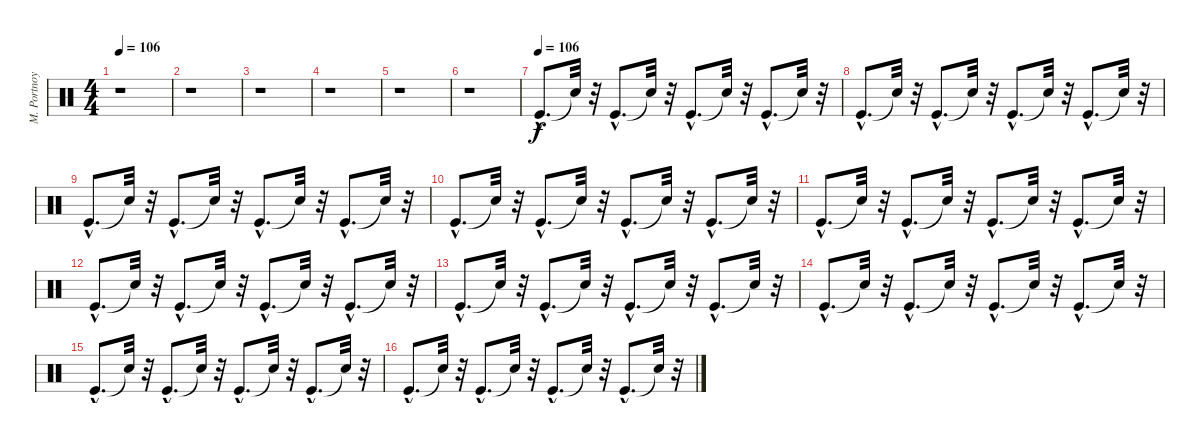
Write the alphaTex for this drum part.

\track ("M. Portnoy" "M. Portnoy") {instrument percussion}
\staff {score}
\articulation defaults
\ts (4 4)
\tempo 106
\clef neutral
\ks c
r.1{dy f} |
r.1 |
r.1 |
r.1 |
r.1 |
r.1 |
\tempo (106)
"Kick (hit)"{hac}.8{d} "Snare (hit)"{t}.32 r.32 "Kick (hit)"{hac}.8{d} "Snare (hit)"{t}.32 r.32 "Kick (hit)"{hac}.8{d} "Snare (hit)"{t}.32 r.32 "Kick (hit)"{hac}.8{d} "Snare (hit)"{t}.32 r.32 |
"Kick (hit)"{hac}.8{d} "Snare (hit)"{t}.32 r.32 "Kick (hit)"{hac}.8{d} "Snare (hit)"{t}.32 r.32 "Kick (hit)"{hac}.8{d} "Snare (hit)"{t}.32 r.32 "Kick (hit)"{hac}.8{d} "Snare (hit)"{t}.32 r.32 |
"Kick (hit)"{hac}.8{d} "Snare (hit)"{t}.32 r.32 "Kick (hit)"{hac}.8{d} "Snare (hit)"{t}.32 r.32 "Kick (hit)"{hac}.8{d} "Snare (hit)"{t}.32 r.32 "Kick (hit)"{hac}.8{d} "Snare (hit)"{t}.32 r.32 |
"Kick (hit)"{hac}.8{d} "Snare (hit)"{t}.32 r.32 "Kick (hit)"{hac}.8{d} "Snare (hit)"{t}.32 r.32 "Kick (hit)"{hac}.8{d} "Snare (hit)"{t}.32 r.32 "Kick (hit)"{hac}.8{d} "Snare (hit)"{t}.32 r.32 |
"Kick (hit)"{hac}.8{d} "Snare (hit)"{t}.32 r.32 "Kick (hit)"{hac}.8{d} "Snare (hit)"{t}.32 r.32 "Kick (hit)"{hac}.8{d} "Snare (hit)"{t}.32 r.32 "Kick (hit)"{hac}.8{d} "Snare (hit)"{t}.32 r.32 |
"Kick (hit)"{hac}.8{d} "Snare (hit)"{t}.32 r.32 "Kick (hit)"{hac}.8{d} "Snare (hit)"{t}.32 r.32 "Kick (hit)"{hac}.8{d} "Snare (hit)"{t}.32 r.32 "Kick (hit)"{hac}.8{d} "Snare (hit)"{t}.32 r.32 |
"Kick (hit)"{hac}.8{d} "Snare (hit)"{t}.32 r.32 "Kick (hit)"{hac}.8{d} "Snare (hit)"{t}.32 r.32 "Kick (hit)"{hac}.8{d} "Snare (hit)"{t}.32 r.32 "Kick (hit)"{hac}.8{d} "Snare (hit)"{t}.32 r.32 |
"Kick (hit)"{hac}.8{d} "Snare (hit)"{t}.32 r.32 "Kick (hit)"{hac}.8{d} "Snare (hit)"{t}.32 r.32 "Kick (hit)"{hac}.8{d} "Snare (hit)"{t}.32 r.32 "Kick (hit)"{hac}.8{d} "Snare (hit)"{t}.32 r.32 |
"Kick (hit)"{hac}.8{d} "Snare (hit)"{t}.32 r.32 "Kick (hit)"{hac}.8{d} "Snare (hit)"{t}.32 r.32 "Kick (hit)"{hac}.8{d} "Snare (hit)"{t}.32 r.32 "Kick (hit)"{hac}.8{d} "Snare (hit)"{t}.32 r.32 |
"Kick (hit)"{hac}.8{d} "Snare (hit)"{t}.32 r.32 "Kick (hit)"{hac}.8{d} "Snare (hit)"{t}.32 r.32 "Kick (hit)"{hac}.8{d} "Snare (hit)"{t}.32 r.32 "Kick (hit)"{hac}.8{d} "Snare (hit)"{t}.32 r.32
